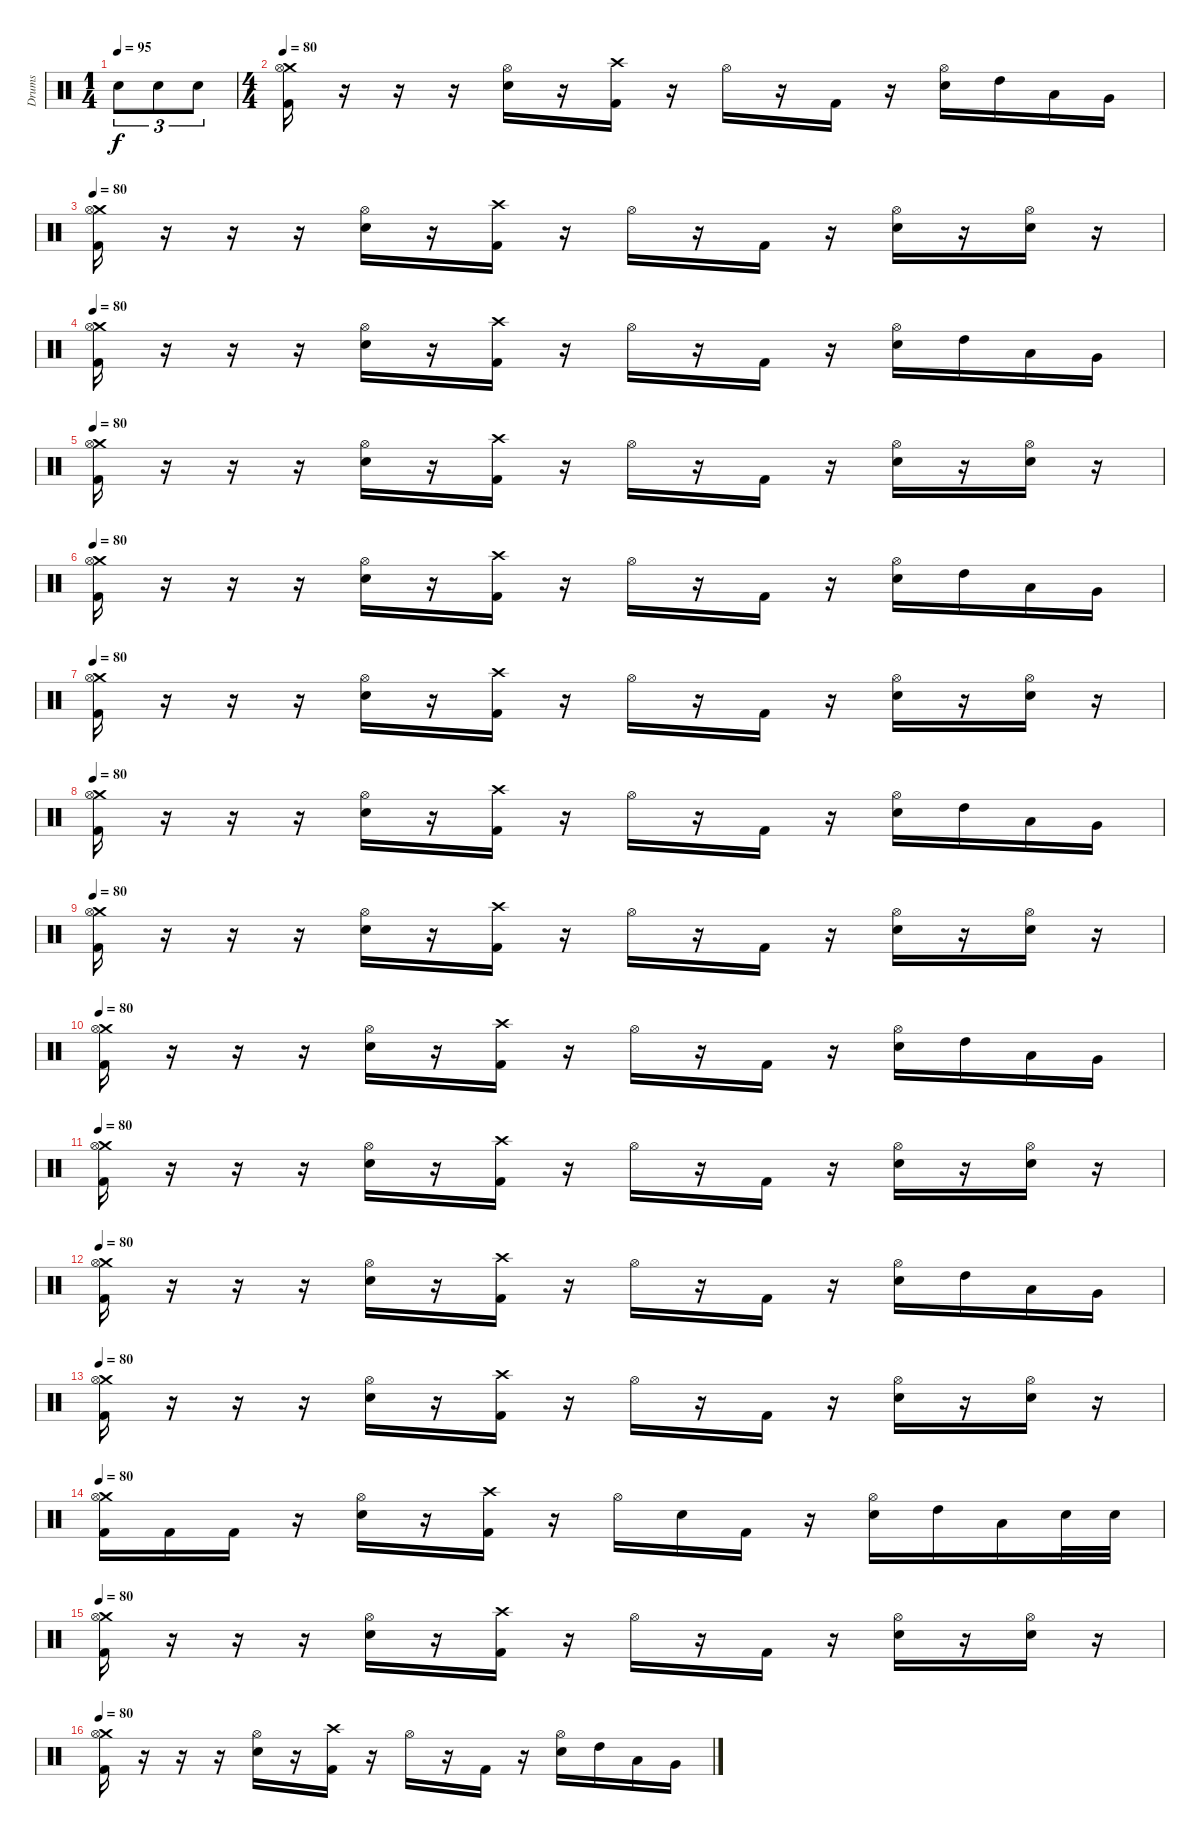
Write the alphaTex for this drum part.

\track ("Drums" "Drums") {instrument percussion}
\staff {score}
\articulation defaults
\ts (1 4)
\tempo 95
\clef neutral
\ks c "Electric Snare (hit)".8{tu (3 2) dy f} "Electric Snare (hit)".8{tu (3 2)} "Electric Snare (hit)".8{tu (3 2)}
|
\ts (4 4)
\tempo 80
("Crash medium (hit)" "Hi-Hat (open)" "Kick (hit) 2").16 r.16 r.16 r.16 ("Hi-Hat (open)" "Electric Snare (hit)").16 r.16 ("Crash high (hit)" "Kick (hit) 2").16 r.16 "Hi-Hat (open)".16 r.16 "Kick (hit) 2".16 r.16 ("Hi-Hat (open)" "Electric Snare (hit)").16 "High Tom (hit)".16 "Low Tom (hit)".16 "Very Low Tom (hit)".16 |
\tempo 80
("Crash medium (hit)" "Hi-Hat (open)" "Kick (hit) 2").16 r.16 r.16 r.16 ("Hi-Hat (open)" "Electric Snare (hit)").16 r.16 ("Crash high (hit)" "Kick (hit) 2").16 r.16 "Hi-Hat (open)".16 r.16 "Kick (hit) 2".16 r.16 ("Hi-Hat (open)" "Electric Snare (hit)").16 r.16 ("Hi-Hat (open)" "Electric Snare (hit)").16 r.16 |
\tempo 80
("Crash medium (hit)" "Hi-Hat (open)" "Kick (hit) 2").16 r.16 r.16 r.16 ("Hi-Hat (open)" "Electric Snare (hit)").16 r.16 ("Crash high (hit)" "Kick (hit) 2").16 r.16 "Hi-Hat (open)".16 r.16 "Kick (hit) 2".16 r.16 ("Hi-Hat (open)" "Electric Snare (hit)").16 "High Tom (hit)".16 "Low Tom (hit)".16 "Very Low Tom (hit)".16 |
\tempo 80
("Crash medium (hit)" "Hi-Hat (open)" "Kick (hit) 2").16 r.16 r.16 r.16 ("Hi-Hat (open)" "Electric Snare (hit)").16 r.16 ("Crash high (hit)" "Kick (hit) 2").16 r.16 "Hi-Hat (open)".16 r.16 "Kick (hit) 2".16 r.16 ("Hi-Hat (open)" "Electric Snare (hit)").16 r.16 ("Hi-Hat (open)" "Electric Snare (hit)").16 r.16 |
\tempo 80
("Crash medium (hit)" "Hi-Hat (open)" "Kick (hit) 2").16 r.16 r.16 r.16 ("Hi-Hat (open)" "Electric Snare (hit)").16 r.16 ("Crash high (hit)" "Kick (hit) 2").16 r.16 "Hi-Hat (open)".16 r.16 "Kick (hit) 2".16 r.16 ("Hi-Hat (open)" "Electric Snare (hit)").16 "High Tom (hit)".16 "Low Tom (hit)".16 "Very Low Tom (hit)".16 |
\tempo 80
("Crash medium (hit)" "Hi-Hat (open)" "Kick (hit) 2").16 r.16 r.16 r.16 ("Hi-Hat (open)" "Electric Snare (hit)").16 r.16 ("Crash high (hit)" "Kick (hit) 2").16 r.16 "Hi-Hat (open)".16 r.16 "Kick (hit) 2".16 r.16 ("Hi-Hat (open)" "Electric Snare (hit)").16 r.16 ("Hi-Hat (open)" "Electric Snare (hit)").16 r.16 |
\tempo 80
("Crash medium (hit)" "Hi-Hat (open)" "Kick (hit) 2").16 r.16 r.16 r.16 ("Hi-Hat (open)" "Electric Snare (hit)").16 r.16 ("Crash high (hit)" "Kick (hit) 2").16 r.16 "Hi-Hat (open)".16 r.16 "Kick (hit) 2".16 r.16 ("Hi-Hat (open)" "Electric Snare (hit)").16 "High Tom (hit)".16 "Low Tom (hit)".16 "Very Low Tom (hit)".16 |
\tempo 80
("Crash medium (hit)" "Hi-Hat (open)" "Kick (hit) 2").16 r.16 r.16 r.16 ("Hi-Hat (open)" "Electric Snare (hit)").16 r.16 ("Crash high (hit)" "Kick (hit) 2").16 r.16 "Hi-Hat (open)".16 r.16 "Kick (hit) 2".16 r.16 ("Hi-Hat (open)" "Electric Snare (hit)").16 r.16 ("Hi-Hat (open)" "Electric Snare (hit)").16 r.16 |
\tempo 80
("Crash medium (hit)" "Hi-Hat (open)" "Kick (hit) 2").16 r.16 r.16 r.16 ("Hi-Hat (open)" "Electric Snare (hit)").16 r.16 ("Crash high (hit)" "Kick (hit) 2").16 r.16 "Hi-Hat (open)".16 r.16 "Kick (hit) 2".16 r.16 ("Hi-Hat (open)" "Electric Snare (hit)").16 "High Tom (hit)".16 "Low Tom (hit)".16 "Very Low Tom (hit)".16 |
\tempo 80
("Crash medium (hit)" "Hi-Hat (open)" "Kick (hit) 2").16 r.16 r.16 r.16 ("Hi-Hat (open)" "Electric Snare (hit)").16 r.16 ("Crash high (hit)" "Kick (hit) 2").16 r.16 "Hi-Hat (open)".16 r.16 "Kick (hit) 2".16 r.16 ("Hi-Hat (open)" "Electric Snare (hit)").16 r.16 ("Hi-Hat (open)" "Electric Snare (hit)").16 r.16 |
\tempo 80
("Crash medium (hit)" "Hi-Hat (open)" "Kick (hit) 2").16 r.16 r.16 r.16 ("Hi-Hat (open)" "Electric Snare (hit)").16 r.16 ("Crash high (hit)" "Kick (hit) 2").16 r.16 "Hi-Hat (open)".16 r.16 "Kick (hit) 2".16 r.16 ("Hi-Hat (open)" "Electric Snare (hit)").16 "High Tom (hit)".16 "Low Tom (hit)".16 "Very Low Tom (hit)".16 |
\tempo 80
("Crash medium (hit)" "Hi-Hat (open)" "Kick (hit) 2").16 r.16 r.16 r.16 ("Hi-Hat (open)" "Electric Snare (hit)").16 r.16 ("Crash high (hit)" "Kick (hit) 2").16 r.16 "Hi-Hat (open)".16 r.16 "Kick (hit) 2".16 r.16 ("Hi-Hat (open)" "Electric Snare (hit)").16 r.16 ("Hi-Hat (open)" "Electric Snare (hit)").16 r.16 |
\tempo 80
("Crash medium (hit)" "Hi-Hat (open)" "Kick (hit) 2").16 "Kick (hit) 2".16 "Kick (hit) 2".16 r.16 ("Hi-Hat (open)" "Electric Snare (hit)").16 r.16 ("Crash high (hit)" "Kick (hit) 2").16 r.16 "Hi-Hat (open)".16 "Electric Snare (hit)".16 "Kick (hit) 2".16 r.16 ("Hi-Hat (open)" "Electric Snare (hit)").16 "High Tom (hit)".16 "Low Tom (hit)".16 "Electric Snare (hit)".32 "Electric Snare (hit)".32 |
\tempo 80
("Crash medium (hit)" "Hi-Hat (open)" "Kick (hit) 2").16 r.16 r.16 r.16 ("Hi-Hat (open)" "Electric Snare (hit)").16 r.16 ("Crash high (hit)" "Kick (hit) 2").16 r.16 "Hi-Hat (open)".16 r.16 "Kick (hit) 2".16 r.16 ("Hi-Hat (open)" "Electric Snare (hit)").16 r.16 ("Hi-Hat (open)" "Electric Snare (hit)").16 r.16 |
\tempo 80
("Crash medium (hit)" "Hi-Hat (open)" "Kick (hit) 2").16 r.16 r.16 r.16 ("Hi-Hat (open)" "Electric Snare (hit)").16 r.16 ("Crash high (hit)" "Kick (hit) 2").16 r.16 "Hi-Hat (open)".16 r.16 "Kick (hit) 2".16 r.16 ("Hi-Hat (open)" "Electric Snare (hit)").16 "High Tom (hit)".16 "Low Tom (hit)".16 "Very Low Tom (hit)".16
